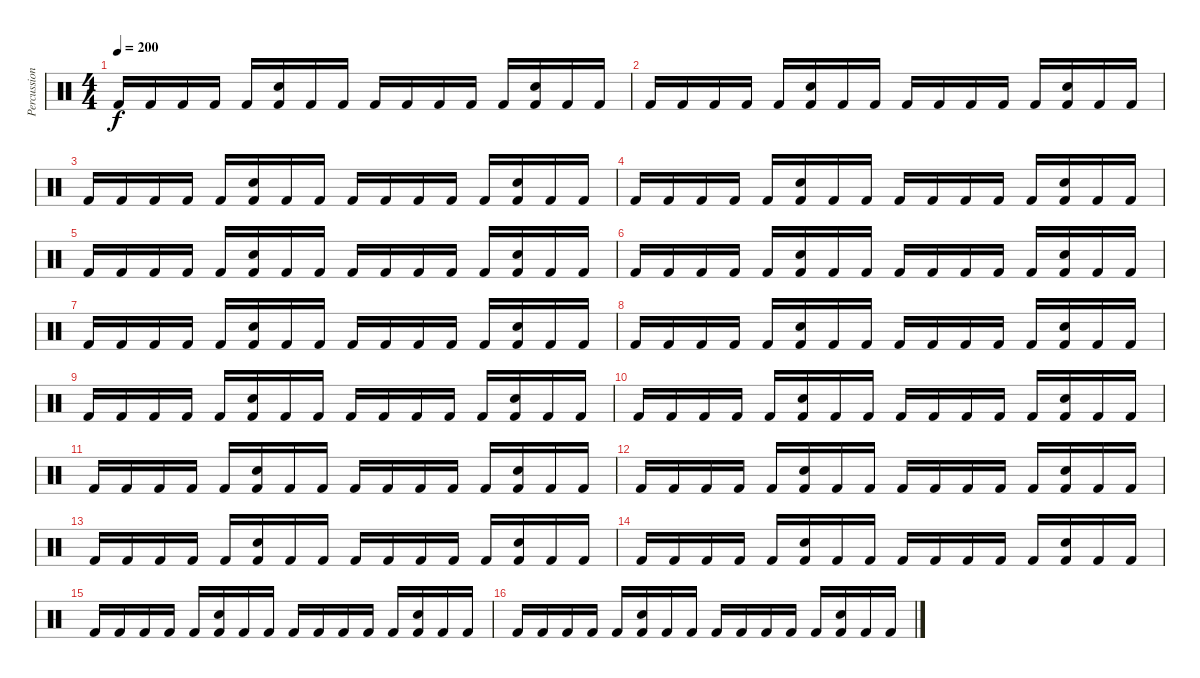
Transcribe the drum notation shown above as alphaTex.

\track ("Percussion" "Percussion") {instrument percussion}
\staff {score}
\articulation defaults
\ts (4 4)
\tempo 200
\clef neutral
\ks c "Kick (hit) 2".16{dy f} "Kick (hit) 2".16 "Kick (hit) 2".16 "Kick (hit) 2".16 "Kick (hit) 2".16
("Electric Snare (hit)" "Kick (hit) 2").16 "Kick (hit) 2".16 "Kick (hit) 2".16 "Kick (hit) 2".16 "Kick (hit) 2".16 "Kick (hit) 2".16 "Kick (hit) 2".16 "Kick (hit) 2".16 ("Electric Snare (hit)" "Kick (hit) 2").16 "Kick (hit) 2".16 "Kick (hit) 2".16 |
"Kick (hit) 2".16 "Kick (hit) 2".16 "Kick (hit) 2".16 "Kick (hit) 2".16 "Kick (hit) 2".16 ("Electric Snare (hit)" "Kick (hit) 2").16 "Kick (hit) 2".16 "Kick (hit) 2".16 "Kick (hit) 2".16 "Kick (hit) 2".16 "Kick (hit) 2".16 "Kick (hit) 2".16 "Kick (hit) 2".16 ("Electric Snare (hit)" "Kick (hit) 2").16 "Kick (hit) 2".16 "Kick (hit) 2".16 |
"Kick (hit) 2".16 "Kick (hit) 2".16 "Kick (hit) 2".16 "Kick (hit) 2".16 "Kick (hit) 2".16 ("Electric Snare (hit)" "Kick (hit) 2").16 "Kick (hit) 2".16 "Kick (hit) 2".16 "Kick (hit) 2".16 "Kick (hit) 2".16 "Kick (hit) 2".16 "Kick (hit) 2".16 "Kick (hit) 2".16 ("Electric Snare (hit)" "Kick (hit) 2").16 "Kick (hit) 2".16 "Kick (hit) 2".16 |
"Kick (hit) 2".16 "Kick (hit) 2".16 "Kick (hit) 2".16 "Kick (hit) 2".16 "Kick (hit) 2".16 ("Electric Snare (hit)" "Kick (hit) 2").16 "Kick (hit) 2".16 "Kick (hit) 2".16 "Kick (hit) 2".16 "Kick (hit) 2".16 "Kick (hit) 2".16 "Kick (hit) 2".16 "Kick (hit) 2".16 ("Electric Snare (hit)" "Kick (hit) 2").16 "Kick (hit) 2".16 "Kick (hit) 2".16 |
"Kick (hit) 2".16 "Kick (hit) 2".16 "Kick (hit) 2".16 "Kick (hit) 2".16 "Kick (hit) 2".16 ("Electric Snare (hit)" "Kick (hit) 2").16 "Kick (hit) 2".16 "Kick (hit) 2".16 "Kick (hit) 2".16 "Kick (hit) 2".16 "Kick (hit) 2".16 "Kick (hit) 2".16 "Kick (hit) 2".16 ("Electric Snare (hit)" "Kick (hit) 2").16 "Kick (hit) 2".16 "Kick (hit) 2".16 |
"Kick (hit) 2".16 "Kick (hit) 2".16 "Kick (hit) 2".16 "Kick (hit) 2".16 "Kick (hit) 2".16 ("Electric Snare (hit)" "Kick (hit) 2").16 "Kick (hit) 2".16 "Kick (hit) 2".16 "Kick (hit) 2".16 "Kick (hit) 2".16 "Kick (hit) 2".16 "Kick (hit) 2".16 "Kick (hit) 2".16 ("Electric Snare (hit)" "Kick (hit) 2").16 "Kick (hit) 2".16 "Kick (hit) 2".16 |
"Kick (hit) 2".16 "Kick (hit) 2".16 "Kick (hit) 2".16 "Kick (hit) 2".16 "Kick (hit) 2".16 ("Electric Snare (hit)" "Kick (hit) 2").16 "Kick (hit) 2".16 "Kick (hit) 2".16 "Kick (hit) 2".16 "Kick (hit) 2".16 "Kick (hit) 2".16 "Kick (hit) 2".16 "Kick (hit) 2".16 ("Electric Snare (hit)" "Kick (hit) 2").16 "Kick (hit) 2".16 "Kick (hit) 2".16 |
"Kick (hit) 2".16 "Kick (hit) 2".16 "Kick (hit) 2".16 "Kick (hit) 2".16 "Kick (hit) 2".16 ("Electric Snare (hit)" "Kick (hit) 2").16 "Kick (hit) 2".16 "Kick (hit) 2".16 "Kick (hit) 2".16 "Kick (hit) 2".16 "Kick (hit) 2".16 "Kick (hit) 2".16 "Kick (hit) 2".16 ("Electric Snare (hit)" "Kick (hit) 2").16 "Kick (hit) 2".16 "Kick (hit) 2".16 |
"Kick (hit) 2".16 "Kick (hit) 2".16 "Kick (hit) 2".16 "Kick (hit) 2".16 "Kick (hit) 2".16 ("Electric Snare (hit)" "Kick (hit) 2").16 "Kick (hit) 2".16 "Kick (hit) 2".16 "Kick (hit) 2".16 "Kick (hit) 2".16 "Kick (hit) 2".16 "Kick (hit) 2".16 "Kick (hit) 2".16 ("Electric Snare (hit)" "Kick (hit) 2").16 "Kick (hit) 2".16 "Kick (hit) 2".16 |
"Kick (hit) 2".16 "Kick (hit) 2".16 "Kick (hit) 2".16 "Kick (hit) 2".16 "Kick (hit) 2".16 ("Electric Snare (hit)" "Kick (hit) 2").16 "Kick (hit) 2".16 "Kick (hit) 2".16 "Kick (hit) 2".16 "Kick (hit) 2".16 "Kick (hit) 2".16 "Kick (hit) 2".16 "Kick (hit) 2".16 ("Electric Snare (hit)" "Kick (hit) 2").16 "Kick (hit) 2".16 "Kick (hit) 2".16 |
"Kick (hit) 2".16 "Kick (hit) 2".16 "Kick (hit) 2".16 "Kick (hit) 2".16 "Kick (hit) 2".16 ("Electric Snare (hit)" "Kick (hit) 2").16 "Kick (hit) 2".16 "Kick (hit) 2".16 "Kick (hit) 2".16 "Kick (hit) 2".16 "Kick (hit) 2".16 "Kick (hit) 2".16 "Kick (hit) 2".16 ("Electric Snare (hit)" "Kick (hit) 2").16 "Kick (hit) 2".16 "Kick (hit) 2".16 |
"Kick (hit) 2".16 "Kick (hit) 2".16 "Kick (hit) 2".16 "Kick (hit) 2".16 "Kick (hit) 2".16 ("Electric Snare (hit)" "Kick (hit) 2").16 "Kick (hit) 2".16 "Kick (hit) 2".16 "Kick (hit) 2".16 "Kick (hit) 2".16 "Kick (hit) 2".16 "Kick (hit) 2".16 "Kick (hit) 2".16 ("Electric Snare (hit)" "Kick (hit) 2").16 "Kick (hit) 2".16 "Kick (hit) 2".16 |
"Kick (hit) 2".16 "Kick (hit) 2".16 "Kick (hit) 2".16 "Kick (hit) 2".16 "Kick (hit) 2".16 ("Electric Snare (hit)" "Kick (hit) 2").16 "Kick (hit) 2".16 "Kick (hit) 2".16 "Kick (hit) 2".16 "Kick (hit) 2".16 "Kick (hit) 2".16 "Kick (hit) 2".16 "Kick (hit) 2".16 ("Electric Snare (hit)" "Kick (hit) 2").16 "Kick (hit) 2".16 "Kick (hit) 2".16 |
"Kick (hit) 2".16 "Kick (hit) 2".16 "Kick (hit) 2".16 "Kick (hit) 2".16 "Kick (hit) 2".16 ("Electric Snare (hit)" "Kick (hit) 2").16 "Kick (hit) 2".16 "Kick (hit) 2".16 "Kick (hit) 2".16 "Kick (hit) 2".16 "Kick (hit) 2".16 "Kick (hit) 2".16 "Kick (hit) 2".16 ("Electric Snare (hit)" "Kick (hit) 2").16 "Kick (hit) 2".16 "Kick (hit) 2".16 |
"Kick (hit) 2".16 "Kick (hit) 2".16 "Kick (hit) 2".16 "Kick (hit) 2".16 "Kick (hit) 2".16 ("Electric Snare (hit)" "Kick (hit) 2").16 "Kick (hit) 2".16 "Kick (hit) 2".16 "Kick (hit) 2".16 "Kick (hit) 2".16 "Kick (hit) 2".16 "Kick (hit) 2".16 "Kick (hit) 2".16 ("Electric Snare (hit)" "Kick (hit) 2").16 "Kick (hit) 2".16 "Kick (hit) 2".16 |
"Kick (hit) 2".16 "Kick (hit) 2".16 "Kick (hit) 2".16 "Kick (hit) 2".16 "Kick (hit) 2".16 ("Electric Snare (hit)" "Kick (hit) 2").16 "Kick (hit) 2".16 "Kick (hit) 2".16 "Kick (hit) 2".16 "Kick (hit) 2".16 "Kick (hit) 2".16 "Kick (hit) 2".16 "Kick (hit) 2".16 ("Electric Snare (hit)" "Kick (hit) 2").16 "Kick (hit) 2".16 "Kick (hit) 2".16
